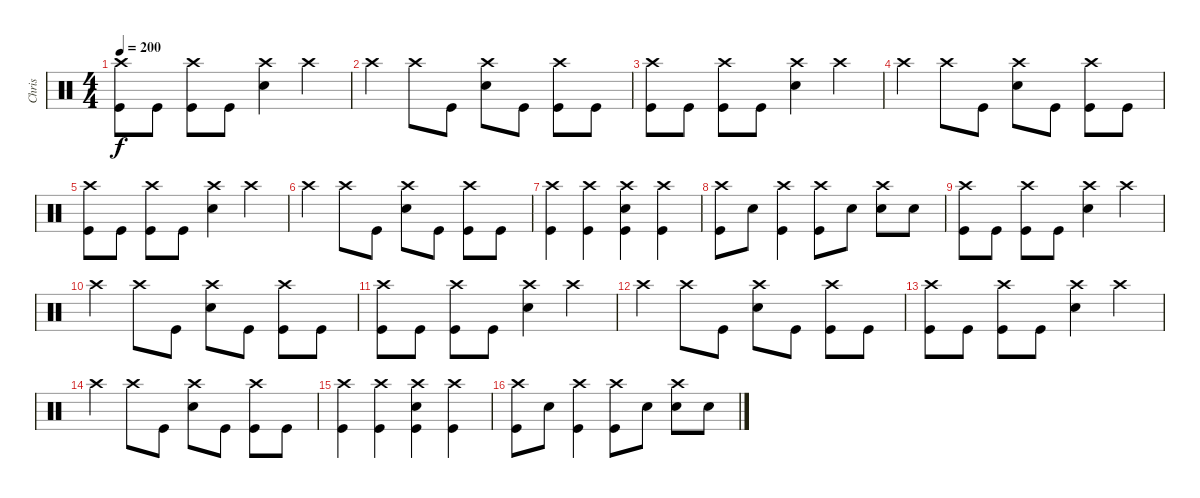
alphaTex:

\track ("Chris" "Chris") {instrument percussion}
\staff {score}
\articulation defaults
\ts (4 4)
\tempo 200
\clef neutral
\ks c
("Crash high (hit)" "Kick (hit)").8{dy f} "Kick (hit)".8 ("Crash high (hit)" "Kick (hit)").8 "Kick (hit)".8 ("Crash high (hit)" "Electric Snare (hit)").4 "Crash high (hit)".4 |
"Crash high (hit)".4 "Crash high (hit)".8 "Kick (hit)".8 ("Crash high (hit)" "Electric Snare (hit)").8 "Kick (hit)".8 ("Crash high (hit)" "Kick (hit)").8 "Kick (hit)".8 |
("Crash high (hit)" "Kick (hit)").8 "Kick (hit)".8 ("Crash high (hit)" "Kick (hit)").8 "Kick (hit)".8 ("Crash high (hit)" "Electric Snare (hit)").4 "Crash high (hit)".4 |
"Crash high (hit)".4 "Crash high (hit)".8 "Kick (hit)".8 ("Crash high (hit)" "Electric Snare (hit)").8 "Kick (hit)".8 ("Crash high (hit)" "Kick (hit)").8 "Kick (hit)".8 |
("Crash high (hit)" "Kick (hit)").8 "Kick (hit)".8 ("Crash high (hit)" "Kick (hit)").8 "Kick (hit)".8 ("Crash high (hit)" "Electric Snare (hit)").4 "Crash high (hit)".4 |
"Crash high (hit)".4 "Crash high (hit)".8 "Kick (hit)".8 ("Crash high (hit)" "Electric Snare (hit)").8 "Kick (hit)".8 ("Crash high (hit)" "Kick (hit)").8 "Kick (hit)".8 |
("Crash high (hit)" "Kick (hit)").4 ("Crash high (hit)" "Kick (hit)").4 ("Crash high (hit)" "Electric Snare (hit)" "Kick (hit)").4 ("Crash high (hit)" "Kick (hit)").4 |
("Crash high (hit)" "Kick (hit)").8 "Electric Snare (hit)".8 ("Crash high (hit)" "Kick (hit)").4 ("Crash high (hit)" "Kick (hit)").8 "Electric Snare (hit)".8 ("Crash high (hit)" "Electric Snare (hit)").8 "Electric Snare (hit)".8 |
("Crash high (hit)" "Kick (hit)").8 "Kick (hit)".8 ("Crash high (hit)" "Kick (hit)").8 "Kick (hit)".8 ("Crash high (hit)" "Electric Snare (hit)").4 "Crash high (hit)".4 |
"Crash high (hit)".4 "Crash high (hit)".8 "Kick (hit)".8 ("Crash high (hit)" "Electric Snare (hit)").8 "Kick (hit)".8 ("Crash high (hit)" "Kick (hit)").8 "Kick (hit)".8 |
("Crash high (hit)" "Kick (hit)").8 "Kick (hit)".8 ("Crash high (hit)" "Kick (hit)").8 "Kick (hit)".8 ("Crash high (hit)" "Electric Snare (hit)").4 "Crash high (hit)".4 |
"Crash high (hit)".4 "Crash high (hit)".8 "Kick (hit)".8 ("Crash high (hit)" "Electric Snare (hit)").8 "Kick (hit)".8 ("Crash high (hit)" "Kick (hit)").8 "Kick (hit)".8 |
("Crash high (hit)" "Kick (hit)").8 "Kick (hit)".8 ("Crash high (hit)" "Kick (hit)").8 "Kick (hit)".8 ("Crash high (hit)" "Electric Snare (hit)").4 "Crash high (hit)".4 |
"Crash high (hit)".4 "Crash high (hit)".8 "Kick (hit)".8 ("Crash high (hit)" "Electric Snare (hit)").8 "Kick (hit)".8 ("Crash high (hit)" "Kick (hit)").8 "Kick (hit)".8 |
("Crash high (hit)" "Kick (hit)").4 ("Crash high (hit)" "Kick (hit)").4 ("Crash high (hit)" "Electric Snare (hit)" "Kick (hit)").4 ("Crash high (hit)" "Kick (hit)").4 |
("Crash high (hit)" "Kick (hit)").8 "Electric Snare (hit)".8 ("Crash high (hit)" "Kick (hit)").4 ("Crash high (hit)" "Kick (hit)").8 "Electric Snare (hit)".8 ("Crash high (hit)" "Electric Snare (hit)").8 "Electric Snare (hit)".8
